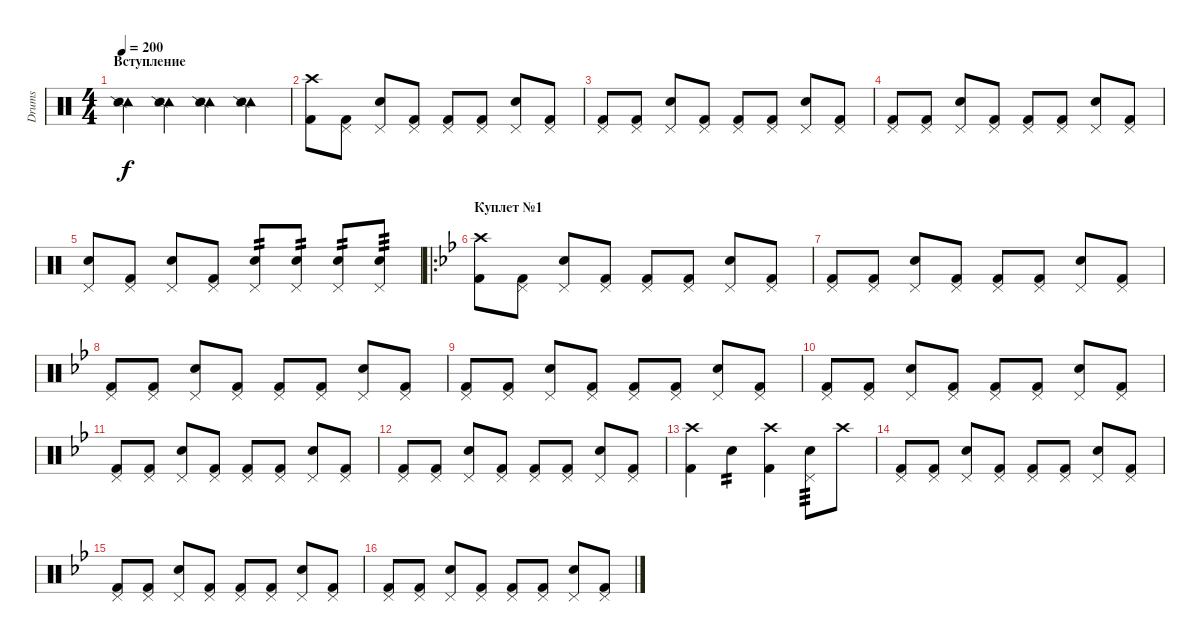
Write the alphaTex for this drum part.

\track ("Drums" "Drums") {instrument percussion}
\staff {score}
\articulation defaults
\ts (4 4)
\section ("" "Вступление")
\tempo 200
\clef neutral
\ks c
("Tambourine (hit)" "Snare (side stick) 2").4{dy f} ("Tambourine (hit)" "Snare (side stick) 2").4 ("Tambourine (hit)" "Snare (side stick) 2").4 ("Tambourine (hit)" "Snare (side stick) 2").4 |
("Crash high (hit)" "Kick (hit) 2").8 ("Pedal Hi-Hat (hit)" "Kick (hit) 2").8 ("Pedal Hi-Hat (hit)" "Electric Snare (hit)").8 ("Pedal Hi-Hat (hit)" "Kick (hit) 2").8 ("Pedal Hi-Hat (hit)" "Kick (hit) 2").8 ("Pedal Hi-Hat (hit)" "Kick (hit) 2").8 ("Pedal Hi-Hat (hit)" "Electric Snare (hit)").8 ("Pedal Hi-Hat (hit)" "Kick (hit) 2").8 |
("Pedal Hi-Hat (hit)" "Kick (hit) 2").8 ("Pedal Hi-Hat (hit)" "Kick (hit) 2").8 ("Pedal Hi-Hat (hit)" "Electric Snare (hit)").8 ("Pedal Hi-Hat (hit)" "Kick (hit) 2").8 ("Pedal Hi-Hat (hit)" "Kick (hit) 2").8 ("Pedal Hi-Hat (hit)" "Kick (hit) 2").8 ("Pedal Hi-Hat (hit)" "Electric Snare (hit)").8 ("Pedal Hi-Hat (hit)" "Kick (hit) 2").8 |
("Pedal Hi-Hat (hit)" "Kick (hit) 2").8 ("Pedal Hi-Hat (hit)" "Kick (hit) 2").8 ("Pedal Hi-Hat (hit)" "Electric Snare (hit)").8 ("Pedal Hi-Hat (hit)" "Kick (hit) 2").8 ("Pedal Hi-Hat (hit)" "Kick (hit) 2").8 ("Pedal Hi-Hat (hit)" "Kick (hit) 2").8 ("Pedal Hi-Hat (hit)" "Electric Snare (hit)").8 ("Pedal Hi-Hat (hit)" "Kick (hit) 2").8 |
("Pedal Hi-Hat (hit)" "Electric Snare (hit)").8 ("Pedal Hi-Hat (hit)" "Kick (hit) 2").8 ("Pedal Hi-Hat (hit)" "Electric Snare (hit)").8 ("Pedal Hi-Hat (hit)" "Kick (hit) 2").8 ("Pedal Hi-Hat (hit)" "Electric Snare (hit)").8{tp 2} ("Pedal Hi-Hat (hit)" "Electric Snare (hit)").8{tp 2} ("Pedal Hi-Hat (hit)" "Electric Snare (hit)").8{tp 2} ("Pedal Hi-Hat (hit)" "Electric Snare (hit)").8{tp 3} |
\ro
\section ("" "Куплет №1")
\ks bb
("Crash high (hit)" "Kick (hit) 2").8 ("Pedal Hi-Hat (hit)" "Kick (hit) 2").8 ("Pedal Hi-Hat (hit)" "Electric Snare (hit)").8 ("Pedal Hi-Hat (hit)" "Kick (hit) 2").8 ("Pedal Hi-Hat (hit)" "Kick (hit) 2").8 ("Pedal Hi-Hat (hit)" "Kick (hit) 2").8 ("Pedal Hi-Hat (hit)" "Electric Snare (hit)").8 ("Pedal Hi-Hat (hit)" "Kick (hit) 2").8 |
("Pedal Hi-Hat (hit)" "Kick (hit) 2").8 ("Pedal Hi-Hat (hit)" "Kick (hit) 2").8 ("Pedal Hi-Hat (hit)" "Electric Snare (hit)").8 ("Pedal Hi-Hat (hit)" "Kick (hit) 2").8 ("Pedal Hi-Hat (hit)" "Kick (hit) 2").8 ("Pedal Hi-Hat (hit)" "Kick (hit) 2").8 ("Pedal Hi-Hat (hit)" "Electric Snare (hit)").8 ("Pedal Hi-Hat (hit)" "Kick (hit) 2").8 |
("Pedal Hi-Hat (hit)" "Kick (hit) 2").8 ("Pedal Hi-Hat (hit)" "Kick (hit) 2").8 ("Pedal Hi-Hat (hit)" "Electric Snare (hit)").8 ("Pedal Hi-Hat (hit)" "Kick (hit) 2").8 ("Pedal Hi-Hat (hit)" "Kick (hit) 2").8 ("Pedal Hi-Hat (hit)" "Kick (hit) 2").8 ("Pedal Hi-Hat (hit)" "Electric Snare (hit)").8 ("Pedal Hi-Hat (hit)" "Kick (hit) 2").8 |
("Pedal Hi-Hat (hit)" "Kick (hit) 2").8 ("Pedal Hi-Hat (hit)" "Kick (hit) 2").8 ("Pedal Hi-Hat (hit)" "Electric Snare (hit)").8 ("Pedal Hi-Hat (hit)" "Kick (hit) 2").8 ("Pedal Hi-Hat (hit)" "Kick (hit) 2").8 ("Pedal Hi-Hat (hit)" "Kick (hit) 2").8 ("Pedal Hi-Hat (hit)" "Electric Snare (hit)").8 ("Pedal Hi-Hat (hit)" "Kick (hit) 2").8 |
("Pedal Hi-Hat (hit)" "Kick (hit) 2").8 ("Pedal Hi-Hat (hit)" "Kick (hit) 2").8 ("Pedal Hi-Hat (hit)" "Electric Snare (hit)").8 ("Pedal Hi-Hat (hit)" "Kick (hit) 2").8 ("Pedal Hi-Hat (hit)" "Kick (hit) 2").8 ("Pedal Hi-Hat (hit)" "Kick (hit) 2").8 ("Pedal Hi-Hat (hit)" "Electric Snare (hit)").8 ("Pedal Hi-Hat (hit)" "Kick (hit) 2").8 |
("Pedal Hi-Hat (hit)" "Kick (hit) 2").8 ("Pedal Hi-Hat (hit)" "Kick (hit) 2").8 ("Pedal Hi-Hat (hit)" "Electric Snare (hit)").8 ("Pedal Hi-Hat (hit)" "Kick (hit) 2").8 ("Pedal Hi-Hat (hit)" "Kick (hit) 2").8 ("Pedal Hi-Hat (hit)" "Kick (hit) 2").8 ("Pedal Hi-Hat (hit)" "Electric Snare (hit)").8 ("Pedal Hi-Hat (hit)" "Kick (hit) 2").8 |
("Pedal Hi-Hat (hit)" "Kick (hit) 2").8 ("Pedal Hi-Hat (hit)" "Kick (hit) 2").8 ("Pedal Hi-Hat (hit)" "Electric Snare (hit)").8 ("Pedal Hi-Hat (hit)" "Kick (hit) 2").8 ("Pedal Hi-Hat (hit)" "Kick (hit) 2").8 ("Pedal Hi-Hat (hit)" "Kick (hit) 2").8 ("Pedal Hi-Hat (hit)" "Electric Snare (hit)").8 ("Pedal Hi-Hat (hit)" "Kick (hit) 2").8 |
("Crash high (hit)" "Kick (hit) 2").4 "Electric Snare (hit)".4{tp 2} ("Crash high (hit)" "Kick (hit) 2").4 ("Pedal Hi-Hat (hit)" "Electric Snare (hit)").8{tp 3} "Crash high (hit)".8 |
("Pedal Hi-Hat (hit)" "Kick (hit) 2").8 ("Pedal Hi-Hat (hit)" "Kick (hit) 2").8 ("Pedal Hi-Hat (hit)" "Electric Snare (hit)").8 ("Pedal Hi-Hat (hit)" "Kick (hit) 2").8 ("Pedal Hi-Hat (hit)" "Kick (hit) 2").8 ("Pedal Hi-Hat (hit)" "Kick (hit) 2").8 ("Pedal Hi-Hat (hit)" "Electric Snare (hit)").8 ("Pedal Hi-Hat (hit)" "Kick (hit) 2").8 |
("Pedal Hi-Hat (hit)" "Kick (hit) 2").8 ("Pedal Hi-Hat (hit)" "Kick (hit) 2").8 ("Pedal Hi-Hat (hit)" "Electric Snare (hit)").8 ("Pedal Hi-Hat (hit)" "Kick (hit) 2").8 ("Pedal Hi-Hat (hit)" "Kick (hit) 2").8 ("Pedal Hi-Hat (hit)" "Kick (hit) 2").8 ("Pedal Hi-Hat (hit)" "Electric Snare (hit)").8 ("Pedal Hi-Hat (hit)" "Kick (hit) 2").8 |
("Pedal Hi-Hat (hit)" "Kick (hit) 2").8 ("Pedal Hi-Hat (hit)" "Kick (hit) 2").8 ("Pedal Hi-Hat (hit)" "Electric Snare (hit)").8 ("Pedal Hi-Hat (hit)" "Kick (hit) 2").8 ("Pedal Hi-Hat (hit)" "Kick (hit) 2").8 ("Pedal Hi-Hat (hit)" "Kick (hit) 2").8 ("Pedal Hi-Hat (hit)" "Electric Snare (hit)").8 ("Pedal Hi-Hat (hit)" "Kick (hit) 2").8
